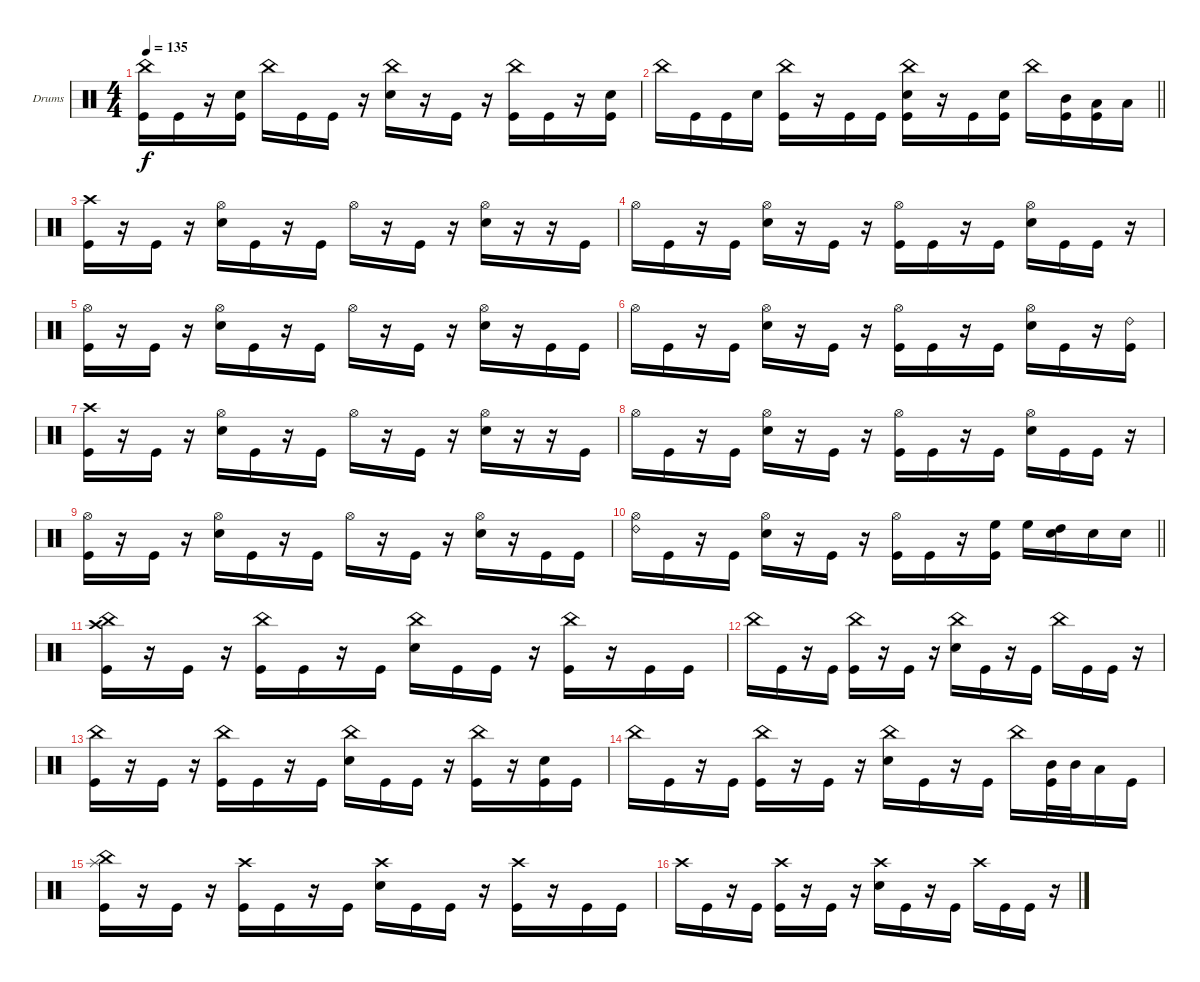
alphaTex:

\bracketExtendMode groupsimilarinstruments
\firstSystemTrackNameOrientation horizontal
\otherSystemsTrackNameOrientation horizontal
\track ("Drumkit" "Drums") {instrument percussion}
\staff {score}
\articulation defaults
\ts (4 4)
\tempo 135
\clef neutral
\ks c
("China (hit)" "Kick (hit)").16{dy f} "Kick (hit)".16 r.16 ("Snare (hit) 2" "Kick (hit)").16 "China (hit)".16 "Kick (hit)".16 "Kick (hit)".16 r.16 ("China (hit)" "Snare (hit) 2").16 r.16 "Kick (hit)".16 r.16 ("China (hit)" "Kick (hit)").16 "Kick (hit)".16 r.16 ("Snare (hit) 2" "Kick (hit)").16 |
\barLineRight lightlight "China (hit)".16 "Kick (hit)".16 "Kick (hit)".16 "Snare (hit) 2".16
("China (hit)" "Kick (hit)").16 r.16 "Kick (hit)".16 "Kick (hit)".16 ("China (hit)" "Snare (hit) 2" "Kick (hit)").16 r.16 "Kick (hit)".16 ("Snare (hit) 2" "Kick (hit)").16 "China (hit)".16 ("Mid Tom (hit)" "Kick (hit)").16 ("Low Tom (hit)" "Kick (hit)").16 "Low Tom (hit)".16 |
("Crash high (hit)" "Kick (hit)").16 r.16 "Kick (hit)".16 r.16 ("Hi-Hat (open)" "Snare (hit) 2").16 "Kick (hit)".16 r.16 "Kick (hit)".16 "Hi-Hat (open)".16 r.16 "Kick (hit)".16 r.16 ("Hi-Hat (open)" "Snare (hit) 2").16 r.16 r.16 "Kick (hit)".16 |
"Hi-Hat (open)".16 "Kick (hit)".16 r.16 "Kick (hit)".16 ("Hi-Hat (open)" "Snare (hit) 2").16 r.16 "Kick (hit)".16 r.16 ("Hi-Hat (open)" "Kick (hit)").16 "Kick (hit)".16 r.16 "Kick (hit)".16 ("Hi-Hat (open)" "Snare (hit) 2").16 "Kick (hit)".16 "Kick (hit)".16 r.16 |
("Hi-Hat (open)" "Kick (hit)").16 r.16 "Kick (hit)".16 r.16 ("Hi-Hat (open)" "Snare (hit) 2").16 "Kick (hit)".16 r.16 "Kick (hit)".16 "Hi-Hat (open)".16 r.16 "Kick (hit)".16 r.16 ("Hi-Hat (open)" "Snare (hit) 2").16 r.16 "Kick (hit)".16 "Kick (hit)".16 |
"Hi-Hat (open)".16 "Kick (hit)".16 r.16 "Kick (hit)".16 ("Hi-Hat (open)" "Snare (hit) 2").16 r.16 "Kick (hit)".16 r.16 ("Hi-Hat (open)" "Kick (hit)").16 "Kick (hit)".16 r.16 "Kick (hit)".16 ("Hi-Hat (open)" "Snare (hit) 2").16 "Kick (hit)".16 r.16 ("Ride (bell) 2" "Kick (hit)").16 |
("Crash high (hit)" "Kick (hit)").16 r.16 "Kick (hit)".16 r.16 ("Hi-Hat (open)" "Snare (hit) 2").16 "Kick (hit)".16 r.16 "Kick (hit)".16 "Hi-Hat (open)".16 r.16 "Kick (hit)".16 r.16 ("Hi-Hat (open)" "Snare (hit) 2").16 r.16 r.16 "Kick (hit)".16 |
"Hi-Hat (open)".16 "Kick (hit)".16 r.16 "Kick (hit)".16 ("Hi-Hat (open)" "Snare (hit) 2").16 r.16 "Kick (hit)".16 r.16 ("Hi-Hat (open)" "Kick (hit)").16 "Kick (hit)".16 r.16 "Kick (hit)".16 ("Hi-Hat (open)" "Snare (hit) 2").16 "Kick (hit)".16 "Kick (hit)".16 r.16 |
("Hi-Hat (open)" "Kick (hit)").16 r.16 "Kick (hit)".16 r.16 ("Hi-Hat (open)" "Snare (hit) 2").16 "Kick (hit)".16 r.16 "Kick (hit)".16 "Hi-Hat (open)".16 r.16 "Kick (hit)".16 r.16 ("Hi-Hat (open)" "Snare (hit) 2").16 r.16 "Kick (hit)".16 "Kick (hit)".16 |
\barLineRight lightlight
("Hi-Hat (open)" "Ride (bell) 2").16 "Kick (hit)".16 r.16 "Kick (hit)".16 ("Hi-Hat (open)" "Snare (hit) 2").16 r.16 "Kick (hit)".16 r.16 ("Hi-Hat (open)" "Kick (hit)").16 "Kick (hit)".16 r.16 ("High Floor Tom (hit)" "Kick (hit)").16 "High Floor Tom (hit)".16 ("High Tom (hit)" "Snare (hit) 2").16 "Snare (hit) 2".16 "Snare (hit) 2".16 |
("Crash high (hit)" "China (hit)" "Kick (hit)").16 r.16 "Kick (hit)".16 r.16 ("China (hit)" "Kick (hit)").16 "Kick (hit)".16 r.16 "Kick (hit)".16 ("China (hit)" "Snare (hit) 2").16 "Kick (hit)".16 "Kick (hit)".16 r.16 ("China (hit)" "Kick (hit)").16 r.16 "Kick (hit)".16 "Kick (hit)".16 |
"China (hit)".16 "Kick (hit)".16 r.16 "Kick (hit)".16 ("China (hit)" "Kick (hit)").16 r.16 "Kick (hit)".16 r.16 ("China (hit)" "Snare (hit) 2").16 "Kick (hit)".16 r.16 "Kick (hit)".16 "China (hit)".16 "Kick (hit)".16 "Kick (hit)".16 r.16 |
("China (hit)" "Kick (hit)").16 r.16 "Kick (hit)".16 r.16 ("China (hit)" "Kick (hit)").16 "Kick (hit)".16 r.16 "Kick (hit)".16 ("China (hit)" "Snare (hit) 2").16 "Kick (hit)".16 "Kick (hit)".16 r.16 ("China (hit)" "Kick (hit)").16 r.16 ("Snare (hit) 2" "Kick (hit)").16 "Kick (hit)".16 |
"China (hit)".16 "Kick (hit)".16 r.16 "Kick (hit)".16 ("China (hit)" "Kick (hit)").16 r.16 "Kick (hit)".16 r.16 ("China (hit)" "Snare (hit) 2").16 "Kick (hit)".16 r.16 "Kick (hit)".16 "China (hit)".16 ("Mid Tom (hit)" "Kick (hit)").32 "Mid Tom (hit)".32 "Low Tom (hit)".16 "Kick (hit)".16 |
("Splash (hit)" "China (hit)" "Kick (hit)").16 r.16 "Kick (hit)".16 r.16 ("Crash high (hit)" "Kick (hit)").16 "Kick (hit)".16 r.16 "Kick (hit)".16 ("Crash high (hit)" "Snare (hit) 2").16 "Kick (hit)".16 "Kick (hit)".16 r.16 ("Crash high (hit)" "Kick (hit)").16 r.16 "Kick (hit)".16 "Kick (hit)".16 |
"Crash high (hit)".16 "Kick (hit)".16 r.16 "Kick (hit)".16 ("Crash high (hit)" "Kick (hit)").16 r.16 "Kick (hit)".16 r.16 ("Crash high (hit)" "Snare (hit) 2").16 "Kick (hit)".16 r.16 "Kick (hit)".16 "Crash high (hit)".16 "Kick (hit)".16 "Kick (hit)".16 r.16
